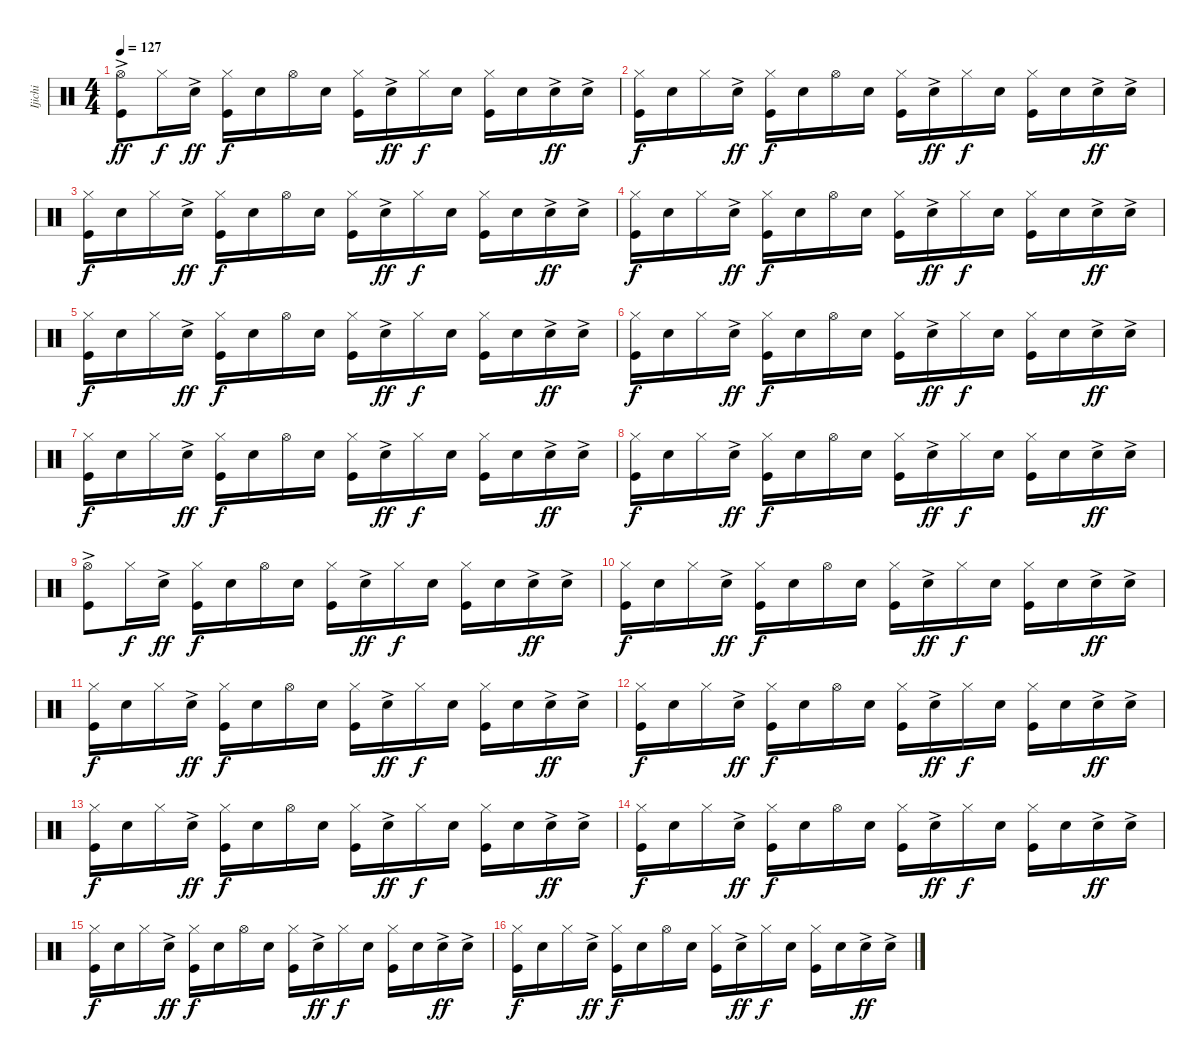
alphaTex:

\track ("Ijichi" "Ijichi") {instrument percussion}
\staff {score}
\articulation defaults
\ts (4 4)
\tempo 127
\clef neutral
\ks c
("Hi-Hat (open)"{ac} "Kick (hit)").8{dy ff} "Hi-Hat (closed)".16{dy f} "Electric Snare (hit)"{ac}.16{dy ff} ("Hi-Hat (closed)" "Kick (hit)").16{dy f} "Electric Snare (hit)".16 "Hi-Hat (open)".16 "Electric Snare (hit)".16 ("Hi-Hat (closed)" "Kick (hit)").16 "Electric Snare (hit)"{ac}.16{dy ff} "Hi-Hat (closed)".16{dy f} "Electric Snare (hit)".16 ("Hi-Hat (closed)" "Kick (hit)").16 "Electric Snare (hit)".16 "Electric Snare (hit)"{ac}.16{dy ff} "Electric Snare (hit)"{ac}.16 |
("Hi-Hat (closed)" "Kick (hit)").16{dy f} "Electric Snare (hit)".16 "Hi-Hat (closed)".16 "Electric Snare (hit)"{ac}.16{dy ff} ("Hi-Hat (closed)" "Kick (hit)").16{dy f} "Electric Snare (hit)".16 "Hi-Hat (open)".16 "Electric Snare (hit)".16 ("Hi-Hat (closed)" "Kick (hit)").16 "Electric Snare (hit)"{ac}.16{dy ff} "Hi-Hat (closed)".16{dy f} "Electric Snare (hit)".16 ("Hi-Hat (closed)" "Kick (hit)").16 "Electric Snare (hit)".16 "Electric Snare (hit)"{ac}.16{dy ff} "Electric Snare (hit)"{ac}.16 |
("Hi-Hat (closed)" "Kick (hit)").16{dy f} "Electric Snare (hit)".16 "Hi-Hat (closed)".16 "Electric Snare (hit)"{ac}.16{dy ff} ("Hi-Hat (closed)" "Kick (hit)").16{dy f} "Electric Snare (hit)".16 "Hi-Hat (open)".16 "Electric Snare (hit)".16 ("Hi-Hat (closed)" "Kick (hit)").16 "Electric Snare (hit)"{ac}.16{dy ff} "Hi-Hat (closed)".16{dy f} "Electric Snare (hit)".16 ("Hi-Hat (closed)" "Kick (hit)").16 "Electric Snare (hit)".16 "Electric Snare (hit)"{ac}.16{dy ff} "Electric Snare (hit)"{ac}.16 |
("Hi-Hat (closed)" "Kick (hit)").16{dy f} "Electric Snare (hit)".16 "Hi-Hat (closed)".16 "Electric Snare (hit)"{ac}.16{dy ff} ("Hi-Hat (closed)" "Kick (hit)").16{dy f} "Electric Snare (hit)".16 "Hi-Hat (open)".16 "Electric Snare (hit)".16 ("Hi-Hat (closed)" "Kick (hit)").16 "Electric Snare (hit)"{ac}.16{dy ff} "Hi-Hat (closed)".16{dy f} "Electric Snare (hit)".16 ("Hi-Hat (closed)" "Kick (hit)").16 "Electric Snare (hit)".16 "Electric Snare (hit)"{ac}.16{dy ff} "Electric Snare (hit)"{ac}.16 |
("Hi-Hat (closed)" "Kick (hit)").16{dy f} "Electric Snare (hit)".16 "Hi-Hat (closed)".16 "Electric Snare (hit)"{ac}.16{dy ff} ("Hi-Hat (closed)" "Kick (hit)").16{dy f} "Electric Snare (hit)".16 "Hi-Hat (open)".16 "Electric Snare (hit)".16 ("Hi-Hat (closed)" "Kick (hit)").16 "Electric Snare (hit)"{ac}.16{dy ff} "Hi-Hat (closed)".16{dy f} "Electric Snare (hit)".16 ("Hi-Hat (closed)" "Kick (hit)").16 "Electric Snare (hit)".16 "Electric Snare (hit)"{ac}.16{dy ff} "Electric Snare (hit)"{ac}.16 |
("Hi-Hat (closed)" "Kick (hit)").16{dy f} "Electric Snare (hit)".16 "Hi-Hat (closed)".16 "Electric Snare (hit)"{ac}.16{dy ff} ("Hi-Hat (closed)" "Kick (hit)").16{dy f} "Electric Snare (hit)".16 "Hi-Hat (open)".16 "Electric Snare (hit)".16 ("Hi-Hat (closed)" "Kick (hit)").16 "Electric Snare (hit)"{ac}.16{dy ff} "Hi-Hat (closed)".16{dy f} "Electric Snare (hit)".16 ("Hi-Hat (closed)" "Kick (hit)").16 "Electric Snare (hit)".16 "Electric Snare (hit)"{ac}.16{dy ff} "Electric Snare (hit)"{ac}.16 |
("Hi-Hat (closed)" "Kick (hit)").16{dy f} "Electric Snare (hit)".16 "Hi-Hat (closed)".16 "Electric Snare (hit)"{ac}.16{dy ff} ("Hi-Hat (closed)" "Kick (hit)").16{dy f} "Electric Snare (hit)".16 "Hi-Hat (open)".16 "Electric Snare (hit)".16 ("Hi-Hat (closed)" "Kick (hit)").16 "Electric Snare (hit)"{ac}.16{dy ff} "Hi-Hat (closed)".16{dy f} "Electric Snare (hit)".16 ("Hi-Hat (closed)" "Kick (hit)").16 "Electric Snare (hit)".16 "Electric Snare (hit)"{ac}.16{dy ff} "Electric Snare (hit)"{ac}.16 |
("Hi-Hat (closed)" "Kick (hit)").16{dy f} "Electric Snare (hit)".16 "Hi-Hat (closed)".16 "Electric Snare (hit)"{ac}.16{dy ff} ("Hi-Hat (closed)" "Kick (hit)").16{dy f} "Electric Snare (hit)".16 "Hi-Hat (open)".16 "Electric Snare (hit)".16 ("Hi-Hat (closed)" "Kick (hit)").16 "Electric Snare (hit)"{ac}.16{dy ff} "Hi-Hat (closed)".16{dy f} "Electric Snare (hit)".16 ("Hi-Hat (closed)" "Kick (hit)").16 "Electric Snare (hit)".16 "Electric Snare (hit)"{ac}.16{dy ff} "Electric Snare (hit)"{ac}.16 |
("Hi-Hat (open)"{ac} "Kick (hit)").8 "Hi-Hat (closed)".16{dy f} "Electric Snare (hit)"{ac}.16{dy ff} ("Hi-Hat (closed)" "Kick (hit)").16{dy f} "Electric Snare (hit)".16 "Hi-Hat (open)".16 "Electric Snare (hit)".16 ("Hi-Hat (closed)" "Kick (hit)").16 "Electric Snare (hit)"{ac}.16{dy ff} "Hi-Hat (closed)".16{dy f} "Electric Snare (hit)".16 ("Hi-Hat (closed)" "Kick (hit)").16 "Electric Snare (hit)".16 "Electric Snare (hit)"{ac}.16{dy ff} "Electric Snare (hit)"{ac}.16 |
("Hi-Hat (closed)" "Kick (hit)").16{dy f} "Electric Snare (hit)".16 "Hi-Hat (closed)".16 "Electric Snare (hit)"{ac}.16{dy ff} ("Hi-Hat (closed)" "Kick (hit)").16{dy f} "Electric Snare (hit)".16 "Hi-Hat (open)".16 "Electric Snare (hit)".16 ("Hi-Hat (closed)" "Kick (hit)").16 "Electric Snare (hit)"{ac}.16{dy ff} "Hi-Hat (closed)".16{dy f} "Electric Snare (hit)".16 ("Hi-Hat (closed)" "Kick (hit)").16 "Electric Snare (hit)".16 "Electric Snare (hit)"{ac}.16{dy ff} "Electric Snare (hit)"{ac}.16 |
("Hi-Hat (closed)" "Kick (hit)").16{dy f} "Electric Snare (hit)".16 "Hi-Hat (closed)".16 "Electric Snare (hit)"{ac}.16{dy ff} ("Hi-Hat (closed)" "Kick (hit)").16{dy f} "Electric Snare (hit)".16 "Hi-Hat (open)".16 "Electric Snare (hit)".16 ("Hi-Hat (closed)" "Kick (hit)").16 "Electric Snare (hit)"{ac}.16{dy ff} "Hi-Hat (closed)".16{dy f} "Electric Snare (hit)".16 ("Hi-Hat (closed)" "Kick (hit)").16 "Electric Snare (hit)".16 "Electric Snare (hit)"{ac}.16{dy ff} "Electric Snare (hit)"{ac}.16 |
("Hi-Hat (closed)" "Kick (hit)").16{dy f} "Electric Snare (hit)".16 "Hi-Hat (closed)".16 "Electric Snare (hit)"{ac}.16{dy ff} ("Hi-Hat (closed)" "Kick (hit)").16{dy f} "Electric Snare (hit)".16 "Hi-Hat (open)".16 "Electric Snare (hit)".16 ("Hi-Hat (closed)" "Kick (hit)").16 "Electric Snare (hit)"{ac}.16{dy ff} "Hi-Hat (closed)".16{dy f} "Electric Snare (hit)".16 ("Hi-Hat (closed)" "Kick (hit)").16 "Electric Snare (hit)".16 "Electric Snare (hit)"{ac}.16{dy ff} "Electric Snare (hit)"{ac}.16 |
("Hi-Hat (closed)" "Kick (hit)").16{dy f} "Electric Snare (hit)".16 "Hi-Hat (closed)".16 "Electric Snare (hit)"{ac}.16{dy ff} ("Hi-Hat (closed)" "Kick (hit)").16{dy f} "Electric Snare (hit)".16 "Hi-Hat (open)".16 "Electric Snare (hit)".16 ("Hi-Hat (closed)" "Kick (hit)").16 "Electric Snare (hit)"{ac}.16{dy ff} "Hi-Hat (closed)".16{dy f} "Electric Snare (hit)".16 ("Hi-Hat (closed)" "Kick (hit)").16 "Electric Snare (hit)".16 "Electric Snare (hit)"{ac}.16{dy ff} "Electric Snare (hit)"{ac}.16 |
("Hi-Hat (closed)" "Kick (hit)").16{dy f} "Electric Snare (hit)".16 "Hi-Hat (closed)".16 "Electric Snare (hit)"{ac}.16{dy ff} ("Hi-Hat (closed)" "Kick (hit)").16{dy f} "Electric Snare (hit)".16 "Hi-Hat (open)".16 "Electric Snare (hit)".16 ("Hi-Hat (closed)" "Kick (hit)").16 "Electric Snare (hit)"{ac}.16{dy ff} "Hi-Hat (closed)".16{dy f} "Electric Snare (hit)".16 ("Hi-Hat (closed)" "Kick (hit)").16 "Electric Snare (hit)".16 "Electric Snare (hit)"{ac}.16{dy ff} "Electric Snare (hit)"{ac}.16 |
("Hi-Hat (closed)" "Kick (hit)").16{dy f} "Electric Snare (hit)".16 "Hi-Hat (closed)".16 "Electric Snare (hit)"{ac}.16{dy ff} ("Hi-Hat (closed)" "Kick (hit)").16{dy f} "Electric Snare (hit)".16 "Hi-Hat (open)".16 "Electric Snare (hit)".16 ("Hi-Hat (closed)" "Kick (hit)").16 "Electric Snare (hit)"{ac}.16{dy ff} "Hi-Hat (closed)".16{dy f} "Electric Snare (hit)".16 ("Hi-Hat (closed)" "Kick (hit)").16 "Electric Snare (hit)".16 "Electric Snare (hit)"{ac}.16{dy ff} "Electric Snare (hit)"{ac}.16 |
("Hi-Hat (closed)" "Kick (hit)").16{dy f} "Electric Snare (hit)".16 "Hi-Hat (closed)".16 "Electric Snare (hit)"{ac}.16{dy ff} ("Hi-Hat (closed)" "Kick (hit)").16{dy f} "Electric Snare (hit)".16 "Hi-Hat (open)".16 "Electric Snare (hit)".16 ("Hi-Hat (closed)" "Kick (hit)").16 "Electric Snare (hit)"{ac}.16{dy ff} "Hi-Hat (closed)".16{dy f} "Electric Snare (hit)".16 ("Hi-Hat (closed)" "Kick (hit)").16 "Electric Snare (hit)".16 "Electric Snare (hit)"{ac}.16{dy ff} "Electric Snare (hit)"{ac}.16
